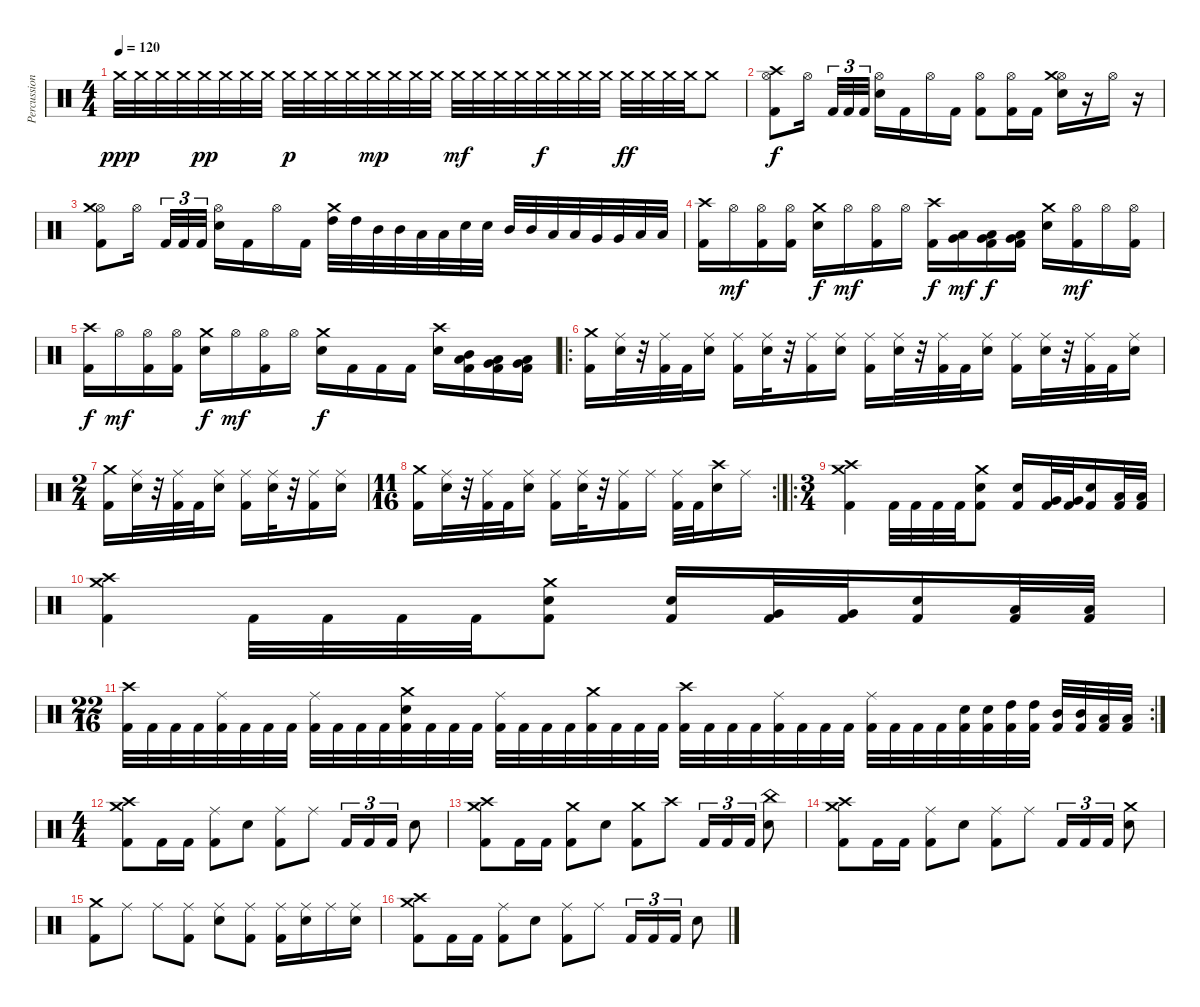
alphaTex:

\track ("Percussion" "Percussion") {instrument percussion}
\staff {score}
\articulation defaults
\ts (4 4)
\tempo 120
\clef neutral
\ks c "Crash medium (hit)".32{dy ppp volume 0} "Crash medium (hit)".32{volume 12} "Crash medium (hit)".32 "Crash medium (hit)".32 "Crash medium (hit)".32{dy pp} "Crash medium (hit)".32 "Crash medium (hit)".32 "Crash medium (hit)".32 "Crash medium (hit)".32{dy p} "Crash medium (hit)".32 "Crash medium (hit)".32 "Crash medium (hit)".32 "Crash medium (hit)".32{dy mp} "Crash medium (hit)".32 "Crash medium (hit)".32 "Crash medium (hit)".32 "Crash medium (hit)".32{dy mf} "Crash medium (hit)".32 "Crash medium (hit)".32 "Crash medium (hit)".32 "Crash medium (hit)".32{dy f} "Crash medium (hit)".32 "Crash medium (hit)".32 "Crash medium (hit)".32 "Crash medium (hit)".32{dy ff} "Crash medium (hit)".32 "Crash medium (hit)".32 "Crash medium (hit)".32 "Crash medium (hit)".8
|
("Kick (hit) 2" "Hi-Hat (open)" "Crash high (hit)").8{dy f} "Hi-Hat (open)".16 "Kick (hit) 2".32{tu (3 2)} "Kick (hit) 2".32{tu (3 2)} "Kick (hit) 2".32{tu (3 2)} ("Electric Snare (hit)" "Hi-Hat (open)").16 "Kick (hit) 2".16 "Hi-Hat (open)".16 "Kick (hit) 2".16 ("Kick (hit) 2" "Hi-Hat (open)").8 ("Kick (hit) 2" "Hi-Hat (open)").16 "Kick (hit) 2".16 ("Electric Snare (hit)" "Hi-Hat (open)" "Crash medium (hit)").16 r.16 "Hi-Hat (open)".16 r.16 |
("Kick (hit) 2" "Hi-Hat (open)" "Crash medium (hit)").8 "Hi-Hat (open)".16 "Kick (hit) 2".32{tu (3 2)} "Kick (hit) 2".32{tu (3 2)} "Kick (hit) 2".32{tu (3 2)} ("Electric Snare (hit)" "Hi-Hat (open)").16 "Kick (hit) 2".16 "Hi-Hat (open)".16 "Kick (hit) 2".16 ("Crash medium (hit)" "High Tom (hit)").32 "High Tom (hit)".32 "Mid Tom (hit)".32 "Mid Tom (hit)".32 "Low Tom (hit)".32 "Low Tom (hit)".32 "Electric Snare (hit)".32 "Electric Snare (hit)".32 "Mid Tom (hit)".32 "Mid Tom (hit)".32 "Low Tom (hit)".32 "Low Tom (hit)".32 "Very Low Tom (hit)".32 "Very Low Tom (hit)".32 "Low Floor Tom (hit)".32 "Low Floor Tom (hit)".32 |
("Kick (hit) 2" "Crash high (hit)").16 "Hi-Hat (open)".16{dy mf} ("Kick (hit) 2" "Hi-Hat (open)").16 ("Kick (hit) 2" "Hi-Hat (open)").16 ("Electric Snare (hit)" "Crash medium (hit)").16{dy f} "Hi-Hat (open)".16{dy mf} ("Kick (hit) 2" "Hi-Hat (open)").16 "Hi-Hat (open)".16 ("Kick (hit) 2" "Crash high (hit)").16{dy f} ("Very Low Tom (hit)" "Low Floor Tom (hit)").16{dy mf} ("Kick (hit) 2" "Very Low Tom (hit)" "Low Floor Tom (hit)").16{dy f} ("Kick (hit) 2" "Low Tom (hit)" "Very Low Tom (hit)").16 ("Electric Snare (hit)" "Crash medium (hit)").16 ("Kick (hit) 2" "Hi-Hat (open)").16{dy mf} "Hi-Hat (open)".16 ("Kick (hit) 2" "Hi-Hat (open)").16 |
("Kick (hit) 2" "Crash high (hit)").16{dy f} "Hi-Hat (open)".16{dy mf} ("Kick (hit) 2" "Hi-Hat (open)").16 ("Kick (hit) 2" "Hi-Hat (open)").16 ("Electric Snare (hit)" "Crash medium (hit)").16{dy f} "Hi-Hat (open)".16{dy mf} ("Kick (hit) 2" "Hi-Hat (open)").16 "Hi-Hat (open)".16 ("Electric Snare (hit)" "Crash medium (hit)").16{dy f} "Kick (hit) 2".16 "Kick (hit) 2".16 "Kick (hit) 2".16 ("Electric Snare (hit)" "Crash high (hit)").16 ("Kick (hit) 2" "Mid Tom (hit)" "Low Tom (hit)").16 ("Kick (hit) 2" "Low Tom (hit)" "Very Low Tom (hit)").16 ("Kick (hit) 2" "Very Low Tom (hit)" "Low Floor Tom (hit)").16 |
\ro
("Kick (hit) 2" "Crash medium (hit)").16 ("Electric Snare (hit)" "Ride (middle)").32 r.32 ("Kick (hit) 2" "Ride (middle)").32 "Kick (hit) 2".32 ("Electric Snare (hit)" "Ride (middle)").16 ("Kick (hit) 2" "Ride (middle)").16 ("Electric Snare (hit)" "Ride (middle)").32 r.32 ("Kick (hit) 2" "Ride (middle)").16 ("Electric Snare (hit)" "Ride (middle)").16 ("Kick (hit) 2" "Ride (middle)").16 ("Electric Snare (hit)" "Ride (middle)").32 r.32 ("Kick (hit) 2" "Ride (middle)").32 "Kick (hit) 2".32 ("Electric Snare (hit)" "Ride (middle)").16 ("Kick (hit) 2" "Ride (middle)").16 ("Electric Snare (hit)" "Ride (middle)").32 r.32 ("Kick (hit) 2" "Ride (middle)").32 "Kick (hit) 2".32 ("Electric Snare (hit)" "Ride (middle)").16 |
\ts (2 4)
("Kick (hit) 2" "Crash medium (hit)").16 ("Electric Snare (hit)" "Ride (middle)").32 r.32 ("Kick (hit) 2" "Ride (middle)").32 "Kick (hit) 2".32 ("Electric Snare (hit)" "Ride (middle)").16 ("Kick (hit) 2" "Ride (middle)").16 ("Electric Snare (hit)" "Ride (middle)").32 r.32 ("Kick (hit) 2" "Ride (middle)").16 ("Electric Snare (hit)" "Ride (middle)").16 |
\rc 2
\ts (11 16)
("Kick (hit) 2" "Crash medium (hit)").16 ("Electric Snare (hit)" "Ride (middle)").32 r.32 ("Kick (hit) 2" "Ride (middle)").32 "Kick (hit) 2".32 ("Electric Snare (hit)" "Ride (middle)").16 ("Kick (hit) 2" "Ride (middle)").16 ("Electric Snare (hit)" "Ride (middle)").32 r.32 ("Ride (middle)" "Kick (hit) 2").16 "Ride (middle)".16 ("Ride (middle)" "Kick (hit) 2").32 "Kick (hit) 2".32 ("Crash high (hit)" "Electric Snare (hit)").16 "Ride (middle)".16 |
\ro
\ts (3 4)
("Kick (hit) 2" "Crash high (hit)" "Crash medium (hit)").4 "Kick (hit) 2".32 "Kick (hit) 2".32 "Kick (hit) 2".32 "Kick (hit) 2".32 ("Kick (hit) 2" "Electric Snare (hit)" "Crash medium (hit)").8 ("Kick (hit) 2" "Electric Snare (hit)").16 ("Kick (hit) 2" "Very Low Tom (hit)").32 ("Kick (hit) 2" "Very Low Tom (hit)").32 ("Kick (hit) 2" "Electric Snare (hit)").16 ("Kick (hit) 2" "Low Tom (hit)").32 ("Kick (hit) 2" "Low Tom (hit)").32 |
("Kick (hit) 2" "Crash high (hit)" "Crash medium (hit)").4 "Kick (hit) 2".32 "Kick (hit) 2".32 "Kick (hit) 2".32 "Kick (hit) 2".32 ("Kick (hit) 2" "Electric Snare (hit)" "Crash medium (hit)").8 ("Kick (hit) 2" "Electric Snare (hit)").16 ("Kick (hit) 2" "Very Low Tom (hit)").32 ("Kick (hit) 2" "Very Low Tom (hit)").32 ("Kick (hit) 2" "Electric Snare (hit)").16 ("Kick (hit) 2" "Low Tom (hit)").32 ("Kick (hit) 2" "Low Tom (hit)").32 |
\rc 2
\ts (22 16)
("Crash high (hit)" "Kick (hit) 2").32 "Kick (hit) 2".32 "Kick (hit) 2".32 "Kick (hit) 2".32 ("Ride (middle)" "Kick (hit) 2").32 "Kick (hit) 2".32 "Kick (hit) 2".32 "Kick (hit) 2".32 ("Ride (middle)" "Kick (hit) 2").32 "Kick (hit) 2".32 "Kick (hit) 2".32 "Kick (hit) 2".32 ("Crash medium (hit)" "Electric Snare (hit)" "Kick (hit) 2").32 "Kick (hit) 2".32 "Kick (hit) 2".32 "Kick (hit) 2".32 ("Ride (middle)" "Kick (hit) 2").32 "Kick (hit) 2".32 "Kick (hit) 2".32 "Kick (hit) 2".32 ("Crash medium (hit)" "Kick (hit) 2").32 "Kick (hit) 2".32 "Kick (hit) 2".32 "Kick (hit) 2".32 ("Crash high (hit)" "Kick (hit) 2").32 "Kick (hit) 2".32 "Kick (hit) 2".32 "Kick (hit) 2".32 ("Ride (middle)" "Kick (hit) 2").32 "Kick (hit) 2".32 "Kick (hit) 2".32 "Kick (hit) 2".32 ("Ride (middle)" "Kick (hit) 2").32 "Kick (hit) 2".32 "Kick (hit) 2".32 "Kick (hit) 2".32 ("Electric Snare (hit)" "Kick (hit) 2").32 ("Electric Snare (hit)" "Kick (hit) 2").32 ("High Tom (hit)" "Kick (hit) 2").32 ("High Tom (hit)" "Kick (hit) 2").32 ("Mid Tom (hit)" "Kick (hit) 2").32 ("Mid Tom (hit)" "Kick (hit) 2").32 ("Low Tom (hit)" "Kick (hit) 2").32 ("Low Tom (hit)" "Kick (hit) 2").32 |
\ts (4 4)
("Kick (hit) 2" "Crash high (hit)" "Crash medium (hit)").8 "Kick (hit) 2".16 "Kick (hit) 2".16 ("Kick (hit) 2" "Ride (middle)").8 "Electric Snare (hit)".8 ("Kick (hit) 2" "Ride (middle)").8 "Ride (middle)".8 "Kick (hit) 2".16{tu (3 2)} "Kick (hit) 2".16{tu (3 2)} "Kick (hit) 2".16{tu (3 2)} "Electric Snare (hit)".8 |
("Kick (hit) 2" "Crash high (hit)" "Crash medium (hit)").8 "Kick (hit) 2".16 "Kick (hit) 2".16 ("Kick (hit) 2" "Crash medium (hit)").8 "Electric Snare (hit)".8 ("Kick (hit) 2" "Crash medium (hit)").8 "Crash high (hit)".8 "Kick (hit) 2".16{tu (3 2)} "Kick (hit) 2".16{tu (3 2)} "Kick (hit) 2".16{tu (3 2)} ("Electric Snare (hit)" "China (hit)").8 |
("Kick (hit) 2" "Crash high (hit)" "Crash medium (hit)").8 "Kick (hit) 2".16 "Kick (hit) 2".16 ("Kick (hit) 2" "Ride (middle)").8 "Electric Snare (hit)".8 ("Kick (hit) 2" "Ride (middle)").8 "Ride (middle)".8 "Kick (hit) 2".16{tu (3 2)} "Kick (hit) 2".16{tu (3 2)} "Kick (hit) 2".16{tu (3 2)} ("Electric Snare (hit)" "Crash medium (hit)").8 |
("Kick (hit) 2" "Crash medium (hit)").8 "Ride (middle)".8 "Ride (middle)".8 ("Kick (hit) 2" "Ride (middle)").8 ("Electric Snare (hit)" "Ride (middle)").8 ("Kick (hit) 2" "Ride (middle)").8 ("Kick (hit) 2" "Ride (middle)").16 ("Electric Snare (hit)" "Ride (middle)").16 "Ride (middle)".16 ("Electric Snare (hit)" "Ride (middle)").16 |
("Kick (hit) 2" "Crash high (hit)" "Crash medium (hit)").8 "Kick (hit) 2".16 "Kick (hit) 2".16 ("Kick (hit) 2" "Ride (middle)").8 "Electric Snare (hit)".8 ("Kick (hit) 2" "Ride (middle)").8 "Ride (middle)".8 "Kick (hit) 2".16{tu (3 2)} "Kick (hit) 2".16{tu (3 2)} "Kick (hit) 2".16{tu (3 2)} "Electric Snare (hit)".8
